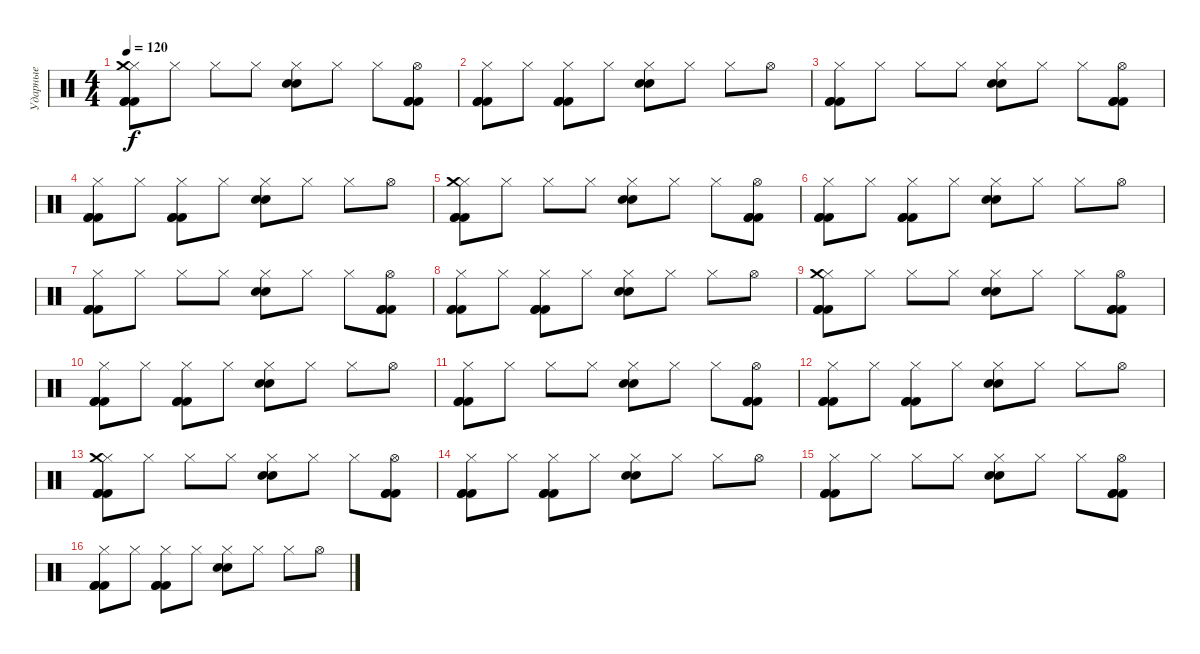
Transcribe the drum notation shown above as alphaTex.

\track ("Ударные" "Ударные") {instrument percussion}
\staff {score}
\articulation defaults
\ts (4 4)
\tempo 120
\clef neutral
\ks c
("Hi-Hat (closed)" "Kick (hit) 2" "Kick (hit) 2" "Kick (hit) 2" "Crash medium (hit)").8{dy f} "Hi-Hat (closed)".8 "Hi-Hat (closed)".8 "Hi-Hat (closed)".8 ("Hi-Hat (closed)" "Snare (hit) 2" "Snare (hit) 2").8 "Hi-Hat (closed)".8 "Hi-Hat (closed)".8 ("Hi-Hat (open)" "Kick (hit) 2" "Kick (hit) 2" "Kick (hit) 2").8 |
("Hi-Hat (closed)" "Kick (hit) 2" "Kick (hit) 2" "Kick (hit) 2").8 "Hi-Hat (closed)".8 ("Hi-Hat (closed)" "Kick (hit) 2" "Kick (hit) 2" "Kick (hit) 2").8 "Hi-Hat (closed)".8 ("Hi-Hat (closed)" "Snare (hit) 2" "Snare (hit) 2").8 "Hi-Hat (closed)".8 "Hi-Hat (closed)".8 "Hi-Hat (open)".8 |
("Hi-Hat (closed)" "Kick (hit) 2" "Kick (hit) 2" "Kick (hit) 2").8 "Hi-Hat (closed)".8 "Hi-Hat (closed)".8 "Hi-Hat (closed)".8 ("Hi-Hat (closed)" "Snare (hit) 2" "Snare (hit) 2").8 "Hi-Hat (closed)".8 "Hi-Hat (closed)".8 ("Hi-Hat (open)" "Kick (hit) 2" "Kick (hit) 2" "Kick (hit) 2").8 |
("Hi-Hat (closed)" "Kick (hit) 2" "Kick (hit) 2" "Kick (hit) 2").8 "Hi-Hat (closed)".8 ("Hi-Hat (closed)" "Kick (hit) 2" "Kick (hit) 2" "Kick (hit) 2").8 "Hi-Hat (closed)".8 ("Hi-Hat (closed)" "Snare (hit) 2" "Snare (hit) 2").8 "Hi-Hat (closed)".8 "Hi-Hat (closed)".8 "Hi-Hat (open)".8 |
("Hi-Hat (closed)" "Kick (hit) 2" "Kick (hit) 2" "Kick (hit) 2" "Crash medium (hit)").8 "Hi-Hat (closed)".8 "Hi-Hat (closed)".8 "Hi-Hat (closed)".8 ("Hi-Hat (closed)" "Snare (hit) 2" "Snare (hit) 2").8 "Hi-Hat (closed)".8 "Hi-Hat (closed)".8 ("Hi-Hat (open)" "Kick (hit) 2" "Kick (hit) 2" "Kick (hit) 2").8 |
("Hi-Hat (closed)" "Kick (hit) 2" "Kick (hit) 2" "Kick (hit) 2").8 "Hi-Hat (closed)".8 ("Hi-Hat (closed)" "Kick (hit) 2" "Kick (hit) 2" "Kick (hit) 2").8 "Hi-Hat (closed)".8 ("Hi-Hat (closed)" "Snare (hit) 2" "Snare (hit) 2").8 "Hi-Hat (closed)".8 "Hi-Hat (closed)".8 "Hi-Hat (open)".8 |
("Hi-Hat (closed)" "Kick (hit) 2" "Kick (hit) 2" "Kick (hit) 2").8 "Hi-Hat (closed)".8 "Hi-Hat (closed)".8 "Hi-Hat (closed)".8 ("Hi-Hat (closed)" "Snare (hit) 2" "Snare (hit) 2").8 "Hi-Hat (closed)".8 "Hi-Hat (closed)".8 ("Hi-Hat (open)" "Kick (hit) 2" "Kick (hit) 2" "Kick (hit) 2").8 |
("Hi-Hat (closed)" "Kick (hit) 2" "Kick (hit) 2" "Kick (hit) 2").8 "Hi-Hat (closed)".8 ("Hi-Hat (closed)" "Kick (hit) 2" "Kick (hit) 2" "Kick (hit) 2").8 "Hi-Hat (closed)".8 ("Hi-Hat (closed)" "Snare (hit) 2" "Snare (hit) 2").8 "Hi-Hat (closed)".8 "Hi-Hat (closed)".8 "Hi-Hat (open)".8 |
("Hi-Hat (closed)" "Kick (hit) 2" "Kick (hit) 2" "Kick (hit) 2" "Crash medium (hit)").8 "Hi-Hat (closed)".8 "Hi-Hat (closed)".8 "Hi-Hat (closed)".8 ("Hi-Hat (closed)" "Snare (hit) 2" "Snare (hit) 2").8 "Hi-Hat (closed)".8 "Hi-Hat (closed)".8 ("Hi-Hat (open)" "Kick (hit) 2" "Kick (hit) 2" "Kick (hit) 2").8 |
("Hi-Hat (closed)" "Kick (hit) 2" "Kick (hit) 2" "Kick (hit) 2").8 "Hi-Hat (closed)".8 ("Hi-Hat (closed)" "Kick (hit) 2" "Kick (hit) 2" "Kick (hit) 2").8 "Hi-Hat (closed)".8 ("Hi-Hat (closed)" "Snare (hit) 2" "Snare (hit) 2").8 "Hi-Hat (closed)".8 "Hi-Hat (closed)".8 "Hi-Hat (open)".8 |
("Hi-Hat (closed)" "Kick (hit) 2" "Kick (hit) 2" "Kick (hit) 2").8 "Hi-Hat (closed)".8 "Hi-Hat (closed)".8 "Hi-Hat (closed)".8 ("Hi-Hat (closed)" "Snare (hit) 2" "Snare (hit) 2").8 "Hi-Hat (closed)".8 "Hi-Hat (closed)".8 ("Hi-Hat (open)" "Kick (hit) 2" "Kick (hit) 2" "Kick (hit) 2").8 |
("Hi-Hat (closed)" "Kick (hit) 2" "Kick (hit) 2" "Kick (hit) 2").8 "Hi-Hat (closed)".8 ("Hi-Hat (closed)" "Kick (hit) 2" "Kick (hit) 2" "Kick (hit) 2").8 "Hi-Hat (closed)".8 ("Hi-Hat (closed)" "Snare (hit) 2" "Snare (hit) 2").8 "Hi-Hat (closed)".8 "Hi-Hat (closed)".8 "Hi-Hat (open)".8 |
("Hi-Hat (closed)" "Kick (hit) 2" "Kick (hit) 2" "Kick (hit) 2" "Crash medium (hit)").8 "Hi-Hat (closed)".8 "Hi-Hat (closed)".8 "Hi-Hat (closed)".8 ("Hi-Hat (closed)" "Snare (hit) 2" "Snare (hit) 2").8 "Hi-Hat (closed)".8 "Hi-Hat (closed)".8 ("Hi-Hat (open)" "Kick (hit) 2" "Kick (hit) 2" "Kick (hit) 2").8 |
("Hi-Hat (closed)" "Kick (hit) 2" "Kick (hit) 2" "Kick (hit) 2").8 "Hi-Hat (closed)".8 ("Hi-Hat (closed)" "Kick (hit) 2" "Kick (hit) 2" "Kick (hit) 2").8 "Hi-Hat (closed)".8 ("Hi-Hat (closed)" "Snare (hit) 2" "Snare (hit) 2").8 "Hi-Hat (closed)".8 "Hi-Hat (closed)".8 "Hi-Hat (open)".8 |
("Hi-Hat (closed)" "Kick (hit) 2" "Kick (hit) 2" "Kick (hit) 2").8 "Hi-Hat (closed)".8 "Hi-Hat (closed)".8 "Hi-Hat (closed)".8 ("Hi-Hat (closed)" "Snare (hit) 2" "Snare (hit) 2").8 "Hi-Hat (closed)".8 "Hi-Hat (closed)".8 ("Hi-Hat (open)" "Kick (hit) 2" "Kick (hit) 2" "Kick (hit) 2").8 |
("Hi-Hat (closed)" "Kick (hit) 2" "Kick (hit) 2" "Kick (hit) 2").8 "Hi-Hat (closed)".8 ("Hi-Hat (closed)" "Kick (hit) 2" "Kick (hit) 2" "Kick (hit) 2").8 "Hi-Hat (closed)".8 ("Hi-Hat (closed)" "Snare (hit) 2" "Snare (hit) 2").8 "Hi-Hat (closed)".8 "Hi-Hat (closed)".8 "Hi-Hat (open)".8
